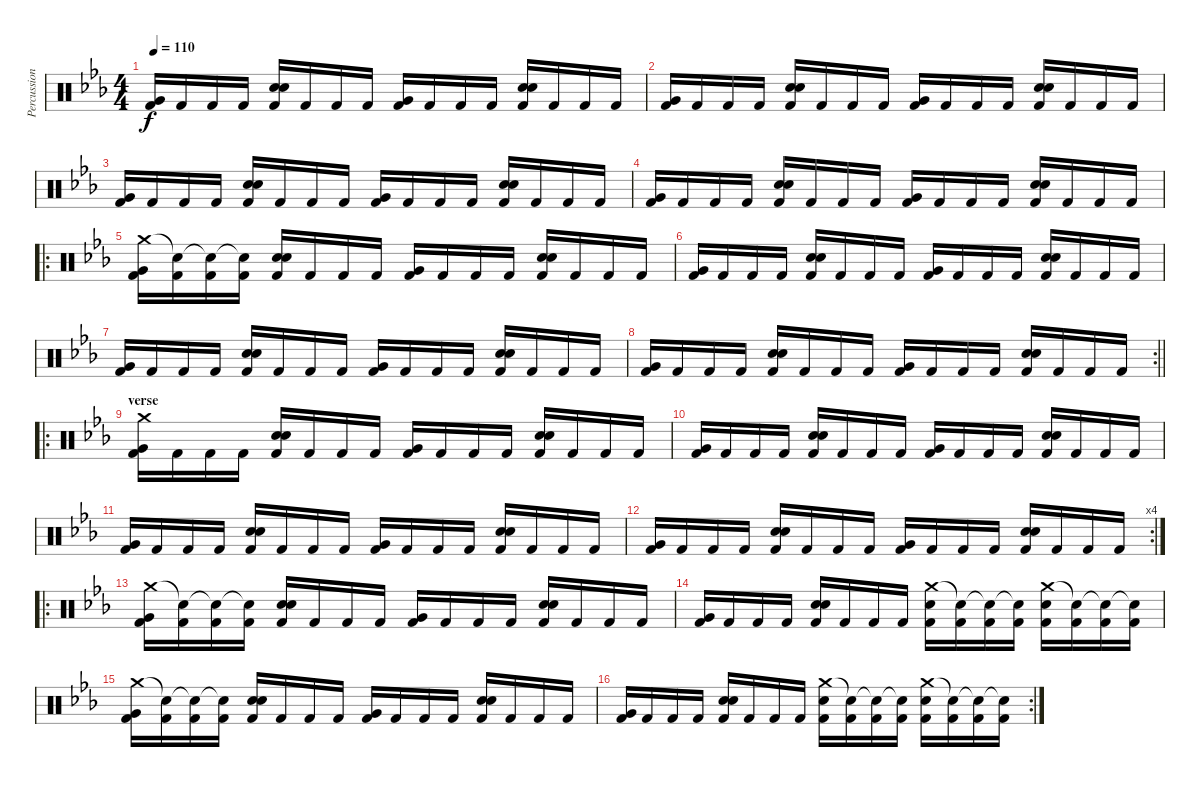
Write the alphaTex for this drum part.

\track ("Percussions" "Percussion") {instrument percussion}
\staff {score}
\articulation defaults
\ts (4 4)
\tempo 110
\clef neutral
\ks cminor
("Very Low Tom (hit)" "Kick (hit) 2").16{dy f} "Kick (hit) 2".16 "Kick (hit) 2".16 "Kick (hit) 2".16 ("Electric Snare (hit)" "Electric Snare (hit)" "Kick (hit) 2").16 "Kick (hit) 2".16 "Kick (hit) 2".16 "Kick (hit) 2".16 ("Very Low Tom (hit)" "Kick (hit) 2").16 "Kick (hit) 2".16 "Kick (hit) 2".16 "Kick (hit) 2".16 ("Electric Snare (hit)" "Electric Snare (hit)" "Kick (hit) 2").16 "Kick (hit) 2".16 "Kick (hit) 2".16 "Kick (hit) 2".16 |
("Very Low Tom (hit)" "Kick (hit) 2").16 "Kick (hit) 2".16 "Kick (hit) 2".16 "Kick (hit) 2".16 ("Electric Snare (hit)" "Electric Snare (hit)" "Kick (hit) 2").16 "Kick (hit) 2".16 "Kick (hit) 2".16 "Kick (hit) 2".16 ("Very Low Tom (hit)" "Kick (hit) 2").16 "Kick (hit) 2".16 "Kick (hit) 2".16 "Kick (hit) 2".16 ("Electric Snare (hit)" "Electric Snare (hit)" "Kick (hit) 2").16 "Kick (hit) 2".16 "Kick (hit) 2".16 "Kick (hit) 2".16 |
("Very Low Tom (hit)" "Kick (hit) 2").16 "Kick (hit) 2".16 "Kick (hit) 2".16 "Kick (hit) 2".16 ("Electric Snare (hit)" "Electric Snare (hit)" "Kick (hit) 2").16 "Kick (hit) 2".16 "Kick (hit) 2".16 "Kick (hit) 2".16 ("Very Low Tom (hit)" "Kick (hit) 2").16 "Kick (hit) 2".16 "Kick (hit) 2".16 "Kick (hit) 2".16 ("Electric Snare (hit)" "Electric Snare (hit)" "Kick (hit) 2").16 "Kick (hit) 2".16 "Kick (hit) 2".16 "Kick (hit) 2".16 |
("Very Low Tom (hit)" "Kick (hit) 2").16 "Kick (hit) 2".16 "Kick (hit) 2".16 "Kick (hit) 2".16 ("Electric Snare (hit)" "Electric Snare (hit)" "Kick (hit) 2").16 "Kick (hit) 2".16 "Kick (hit) 2".16 "Kick (hit) 2".16 ("Very Low Tom (hit)" "Kick (hit) 2").16 "Kick (hit) 2".16 "Kick (hit) 2".16 "Kick (hit) 2".16 ("Electric Snare (hit)" "Electric Snare (hit)" "Kick (hit) 2").16 "Kick (hit) 2".16 "Kick (hit) 2".16 "Kick (hit) 2".16 |
\ro
("Crash medium (hit)" "Very Low Tom (hit)" "Kick (hit) 2").16 ("Snare (hit)"{t} "Kick (hit) 2").16 ("Snare (hit)"{t} "Kick (hit) 2").16 ("Snare (hit)"{t} "Kick (hit) 2").16 ("Electric Snare (hit)" "Electric Snare (hit)" "Kick (hit) 2").16 "Kick (hit) 2".16 "Kick (hit) 2".16 "Kick (hit) 2".16 ("Very Low Tom (hit)" "Kick (hit) 2").16 "Kick (hit) 2".16 "Kick (hit) 2".16 "Kick (hit) 2".16 ("Electric Snare (hit)" "Electric Snare (hit)" "Kick (hit) 2").16 "Kick (hit) 2".16 "Kick (hit) 2".16 "Kick (hit) 2".16 |
("Very Low Tom (hit)" "Kick (hit) 2").16 "Kick (hit) 2".16 "Kick (hit) 2".16 "Kick (hit) 2".16 ("Electric Snare (hit)" "Electric Snare (hit)" "Kick (hit) 2").16 "Kick (hit) 2".16 "Kick (hit) 2".16 "Kick (hit) 2".16 ("Very Low Tom (hit)" "Kick (hit) 2").16 "Kick (hit) 2".16 "Kick (hit) 2".16 "Kick (hit) 2".16 ("Electric Snare (hit)" "Electric Snare (hit)" "Kick (hit) 2").16 "Kick (hit) 2".16 "Kick (hit) 2".16 "Kick (hit) 2".16 |
("Very Low Tom (hit)" "Kick (hit) 2").16 "Kick (hit) 2".16 "Kick (hit) 2".16 "Kick (hit) 2".16 ("Electric Snare (hit)" "Electric Snare (hit)" "Kick (hit) 2").16 "Kick (hit) 2".16 "Kick (hit) 2".16 "Kick (hit) 2".16 ("Very Low Tom (hit)" "Kick (hit) 2").16 "Kick (hit) 2".16 "Kick (hit) 2".16 "Kick (hit) 2".16 ("Electric Snare (hit)" "Electric Snare (hit)" "Kick (hit) 2").16 "Kick (hit) 2".16 "Kick (hit) 2".16 "Kick (hit) 2".16 |
\rc 2
\barLineRight lightlight
("Very Low Tom (hit)" "Kick (hit) 2").16 "Kick (hit) 2".16 "Kick (hit) 2".16 "Kick (hit) 2".16 ("Electric Snare (hit)" "Electric Snare (hit)" "Kick (hit) 2").16 "Kick (hit) 2".16 "Kick (hit) 2".16 "Kick (hit) 2".16 ("Very Low Tom (hit)" "Kick (hit) 2").16 "Kick (hit) 2".16 "Kick (hit) 2".16 "Kick (hit) 2".16 ("Electric Snare (hit)" "Electric Snare (hit)" "Kick (hit) 2").16 "Kick (hit) 2".16 "Kick (hit) 2".16 "Kick (hit) 2".16 |
\ro
\section ("" "verse")
("Crash medium (hit)" "Very Low Tom (hit)" "Kick (hit) 2").16 "Kick (hit) 2".16 "Kick (hit) 2".16 "Kick (hit) 2".16 ("Electric Snare (hit)" "Electric Snare (hit)" "Kick (hit) 2").16 "Kick (hit) 2".16 "Kick (hit) 2".16 "Kick (hit) 2".16 ("Very Low Tom (hit)" "Kick (hit) 2").16 "Kick (hit) 2".16 "Kick (hit) 2".16 "Kick (hit) 2".16 ("Electric Snare (hit)" "Electric Snare (hit)" "Kick (hit) 2").16 "Kick (hit) 2".16 "Kick (hit) 2".16 "Kick (hit) 2".16 |
("Very Low Tom (hit)" "Kick (hit) 2").16 "Kick (hit) 2".16 "Kick (hit) 2".16 "Kick (hit) 2".16 ("Electric Snare (hit)" "Electric Snare (hit)" "Kick (hit) 2").16 "Kick (hit) 2".16 "Kick (hit) 2".16 "Kick (hit) 2".16 ("Very Low Tom (hit)" "Kick (hit) 2").16 "Kick (hit) 2".16 "Kick (hit) 2".16 "Kick (hit) 2".16 ("Electric Snare (hit)" "Electric Snare (hit)" "Kick (hit) 2").16 "Kick (hit) 2".16 "Kick (hit) 2".16 "Kick (hit) 2".16 |
("Very Low Tom (hit)" "Kick (hit) 2").16 "Kick (hit) 2".16 "Kick (hit) 2".16 "Kick (hit) 2".16 ("Electric Snare (hit)" "Electric Snare (hit)" "Kick (hit) 2").16 "Kick (hit) 2".16 "Kick (hit) 2".16 "Kick (hit) 2".16 ("Very Low Tom (hit)" "Kick (hit) 2").16 "Kick (hit) 2".16 "Kick (hit) 2".16 "Kick (hit) 2".16 ("Electric Snare (hit)" "Electric Snare (hit)" "Kick (hit) 2").16 "Kick (hit) 2".16 "Kick (hit) 2".16 "Kick (hit) 2".16 |
\rc 4
("Very Low Tom (hit)" "Kick (hit) 2").16 "Kick (hit) 2".16 "Kick (hit) 2".16 "Kick (hit) 2".16 ("Electric Snare (hit)" "Electric Snare (hit)" "Kick (hit) 2").16 "Kick (hit) 2".16 "Kick (hit) 2".16 "Kick (hit) 2".16 ("Very Low Tom (hit)" "Kick (hit) 2").16 "Kick (hit) 2".16 "Kick (hit) 2".16 "Kick (hit) 2".16 ("Electric Snare (hit)" "Electric Snare (hit)" "Kick (hit) 2").16 "Kick (hit) 2".16 "Kick (hit) 2".16 "Kick (hit) 2".16 |
\ro
("Crash medium (hit)" "Very Low Tom (hit)" "Kick (hit) 2").16 ("Snare (hit)"{t} "Kick (hit) 2").16 ("Snare (hit)"{t} "Kick (hit) 2").16 ("Snare (hit)"{t} "Kick (hit) 2").16 ("Electric Snare (hit)" "Electric Snare (hit)" "Kick (hit) 2").16 "Kick (hit) 2".16 "Kick (hit) 2".16 "Kick (hit) 2".16 ("Very Low Tom (hit)" "Kick (hit) 2").16 "Kick (hit) 2".16 "Kick (hit) 2".16 "Kick (hit) 2".16 ("Electric Snare (hit)" "Electric Snare (hit)" "Kick (hit) 2").16 "Kick (hit) 2".16 "Kick (hit) 2".16 "Kick (hit) 2".16 |
("Very Low Tom (hit)" "Kick (hit) 2").16 "Kick (hit) 2".16 "Kick (hit) 2".16 "Kick (hit) 2".16 ("Electric Snare (hit)" "Electric Snare (hit)" "Kick (hit) 2").16 "Kick (hit) 2".16 "Kick (hit) 2".16 "Kick (hit) 2".16 ("Crash medium (hit)" "Electric Snare (hit)" "Kick (hit) 2").16 ("Snare (hit)"{t} "Kick (hit) 2").16 ("Snare (hit)"{t} "Kick (hit) 2").16 ("Snare (hit)"{t} "Kick (hit) 2").16 ("Crash medium (hit)" "Electric Snare (hit)" "Kick (hit) 2").16 ("Snare (hit)"{t} "Kick (hit) 2").16 ("Snare (hit)"{t} "Kick (hit) 2").16 ("Snare (hit)"{t} "Kick (hit) 2").16 |
("Crash medium (hit)" "Very Low Tom (hit)" "Kick (hit) 2").16 ("Snare (hit)"{t} "Kick (hit) 2").16 ("Snare (hit)"{t} "Kick (hit) 2").16 ("Snare (hit)"{t} "Kick (hit) 2").16 ("Electric Snare (hit)" "Electric Snare (hit)" "Kick (hit) 2").16 "Kick (hit) 2".16 "Kick (hit) 2".16 "Kick (hit) 2".16 ("Very Low Tom (hit)" "Kick (hit) 2").16 "Kick (hit) 2".16 "Kick (hit) 2".16 "Kick (hit) 2".16 ("Electric Snare (hit)" "Electric Snare (hit)" "Kick (hit) 2").16 "Kick (hit) 2".16 "Kick (hit) 2".16 "Kick (hit) 2".16 |
\rc 2
("Very Low Tom (hit)" "Kick (hit) 2").16 "Kick (hit) 2".16 "Kick (hit) 2".16 "Kick (hit) 2".16 ("Electric Snare (hit)" "Electric Snare (hit)" "Kick (hit) 2").16 "Kick (hit) 2".16 "Kick (hit) 2".16 "Kick (hit) 2".16 ("Crash medium (hit)" "Electric Snare (hit)" "Kick (hit) 2").16 ("Snare (hit)"{t} "Kick (hit) 2").16 ("Snare (hit)"{t} "Kick (hit) 2").16 ("Snare (hit)"{t} "Kick (hit) 2").16 ("Crash medium (hit)" "Electric Snare (hit)" "Kick (hit) 2").16 ("Snare (hit)"{t} "Kick (hit) 2").16 ("Snare (hit)"{t} "Kick (hit) 2").16 ("Snare (hit)"{t} "Kick (hit) 2").16
